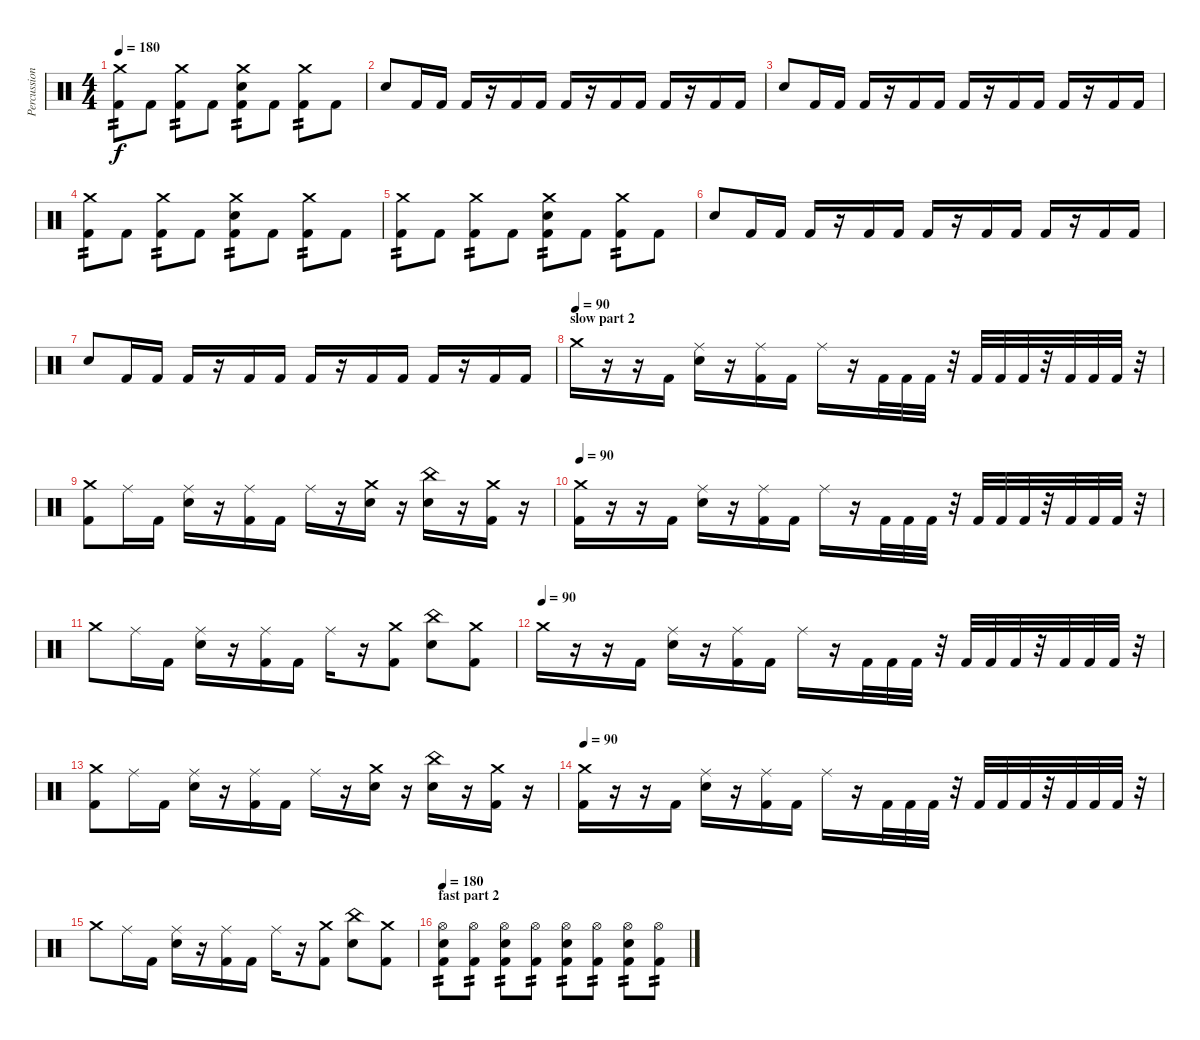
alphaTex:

\track ("Percussion" "Percussion") {instrument percussion}
\staff {score}
\articulation defaults
\ts (4 4)
\tempo 180
\clef neutral
\ks c
("Crash medium (hit)" "Kick (hit) 2").8{tp 2 dy f} "Kick (hit) 2".8 ("Crash medium (hit)" "Kick (hit) 2").8{tp 2} "Kick (hit) 2".8 ("Crash medium (hit)" "Electric Snare (hit)" "Kick (hit) 2").8{tp 2} "Kick (hit) 2".8 ("Crash medium (hit)" "Kick (hit) 2").8{tp 2} "Kick (hit) 2".8 |
"Electric Snare (hit)".8 "Kick (hit) 2".16 "Kick (hit) 2".16 "Kick (hit) 2".16 r.16 "Kick (hit) 2".16 "Kick (hit) 2".16 "Kick (hit) 2".16 r.16 "Kick (hit) 2".16 "Kick (hit) 2".16 "Kick (hit) 2".16 r.16 "Kick (hit) 2".16 "Kick (hit) 2".16 |
"Electric Snare (hit)".8 "Kick (hit) 2".16 "Kick (hit) 2".16 "Kick (hit) 2".16 r.16 "Kick (hit) 2".16 "Kick (hit) 2".16 "Kick (hit) 2".16 r.16 "Kick (hit) 2".16 "Kick (hit) 2".16 "Kick (hit) 2".16 r.16 "Kick (hit) 2".16 "Kick (hit) 2".16 |
("Crash medium (hit)" "Kick (hit) 2").8{tp 2} "Kick (hit) 2".8 ("Crash medium (hit)" "Kick (hit) 2").8{tp 2} "Kick (hit) 2".8 ("Crash medium (hit)" "Electric Snare (hit)" "Kick (hit) 2").8{tp 2} "Kick (hit) 2".8 ("Crash medium (hit)" "Kick (hit) 2").8{tp 2} "Kick (hit) 2".8 |
("Crash medium (hit)" "Kick (hit) 2").8{tp 2} "Kick (hit) 2".8 ("Crash medium (hit)" "Kick (hit) 2").8{tp 2} "Kick (hit) 2".8 ("Crash medium (hit)" "Electric Snare (hit)" "Kick (hit) 2").8{tp 2} "Kick (hit) 2".8 ("Crash medium (hit)" "Kick (hit) 2").8{tp 2} "Kick (hit) 2".8 |
"Electric Snare (hit)".8 "Kick (hit) 2".16 "Kick (hit) 2".16 "Kick (hit) 2".16 r.16 "Kick (hit) 2".16 "Kick (hit) 2".16 "Kick (hit) 2".16 r.16 "Kick (hit) 2".16 "Kick (hit) 2".16 "Kick (hit) 2".16 r.16 "Kick (hit) 2".16 "Kick (hit) 2".16 |
"Electric Snare (hit)".8 "Kick (hit) 2".16 "Kick (hit) 2".16 "Kick (hit) 2".16 r.16 "Kick (hit) 2".16 "Kick (hit) 2".16 "Kick (hit) 2".16 r.16 "Kick (hit) 2".16 "Kick (hit) 2".16 "Kick (hit) 2".16 r.16 "Kick (hit) 2".16 "Kick (hit) 2".16 |
\section ("" "slow part 2")
\tempo (90)
"Crash medium (hit)".16 r.16 r.16 "Kick (hit) 2".16 ("Ride (middle)" "Electric Snare (hit)").16 r.16 ("Ride (middle)" "Kick (hit) 2").16 "Kick (hit) 2".16 "Ride (middle)".16 r.16 "Kick (hit) 2".32 "Kick (hit) 2".32 "Kick (hit) 2".32 r.32 "Kick (hit) 2".32 "Kick (hit) 2".32 "Kick (hit) 2".32 r.32 "Kick (hit) 2".32 "Kick (hit) 2".32 "Kick (hit) 2".32 r.32 |
("Crash medium (hit)" "Kick (hit) 2").8 "Ride (middle)".16 "Kick (hit) 2".16 ("Ride (middle)" "Electric Snare (hit)").16 r.16 ("Ride (middle)" "Kick (hit) 2").16 "Kick (hit) 2".16 "Ride (middle)".16 r.16 ("Crash medium (hit)" "Electric Snare (hit)").16 r.16 ("China (hit)" "Electric Snare (hit)").16 r.16 ("Crash medium (hit)" "Kick (hit) 2").16 r.16 |
\tempo 90
("Crash medium (hit)" "Kick (hit) 2").16 r.16 r.16 "Kick (hit) 2".16 ("Ride (middle)" "Electric Snare (hit)").16 r.16 ("Ride (middle)" "Kick (hit) 2").16 "Kick (hit) 2".16 "Ride (middle)".16 r.16 "Kick (hit) 2".32 "Kick (hit) 2".32 "Kick (hit) 2".32 r.32 "Kick (hit) 2".32 "Kick (hit) 2".32 "Kick (hit) 2".32 r.32 "Kick (hit) 2".32 "Kick (hit) 2".32 "Kick (hit) 2".32 r.32 |
"Crash medium (hit)".8 "Ride (middle)".16 "Kick (hit) 2".16 ("Ride (middle)" "Electric Snare (hit)").16 r.16 ("Ride (middle)" "Kick (hit) 2").16 "Kick (hit) 2".16 "Ride (middle)".16 r.16 ("Crash medium (hit)" "Kick (hit) 2").8 ("China (hit)" "Electric Snare (hit)").8 ("Crash medium (hit)" "Kick (hit) 2").8 |
\tempo (90)
"Crash medium (hit)".16 r.16 r.16 "Kick (hit) 2".16 ("Ride (middle)" "Electric Snare (hit)").16 r.16 ("Ride (middle)" "Kick (hit) 2").16 "Kick (hit) 2".16 "Ride (middle)".16 r.16 "Kick (hit) 2".32 "Kick (hit) 2".32 "Kick (hit) 2".32 r.32 "Kick (hit) 2".32 "Kick (hit) 2".32 "Kick (hit) 2".32 r.32 "Kick (hit) 2".32 "Kick (hit) 2".32 "Kick (hit) 2".32 r.32 |
("Crash medium (hit)" "Kick (hit) 2").8 "Ride (middle)".16 "Kick (hit) 2".16 ("Ride (middle)" "Electric Snare (hit)").16 r.16 ("Ride (middle)" "Kick (hit) 2").16 "Kick (hit) 2".16 "Ride (middle)".16 r.16 ("Crash medium (hit)" "Electric Snare (hit)").16 r.16 ("China (hit)" "Electric Snare (hit)").16 r.16 ("Crash medium (hit)" "Kick (hit) 2").16 r.16 |
\tempo 90
("Crash medium (hit)" "Kick (hit) 2").16 r.16 r.16 "Kick (hit) 2".16 ("Ride (middle)" "Electric Snare (hit)").16 r.16 ("Ride (middle)" "Kick (hit) 2").16 "Kick (hit) 2".16 "Ride (middle)".16 r.16 "Kick (hit) 2".32 "Kick (hit) 2".32 "Kick (hit) 2".32 r.32 "Kick (hit) 2".32 "Kick (hit) 2".32 "Kick (hit) 2".32 r.32 "Kick (hit) 2".32 "Kick (hit) 2".32 "Kick (hit) 2".32 r.32 |
"Crash medium (hit)".8 "Ride (middle)".16 "Kick (hit) 2".16 ("Ride (middle)" "Electric Snare (hit)").16 r.16 ("Ride (middle)" "Kick (hit) 2").16 "Kick (hit) 2".16 "Ride (middle)".16 r.16 ("Crash medium (hit)" "Kick (hit) 2").8 ("China (hit)" "Electric Snare (hit)").8 ("Crash medium (hit)" "Kick (hit) 2").8 |
\section ("" "fast part 2")
\tempo 180
("Hi-Hat (open)" "Electric Snare (hit)" "Kick (hit) 2").8{tp 2} ("Hi-Hat (open)" "Kick (hit) 2").8{tp 2} ("Hi-Hat (open)" "Electric Snare (hit)" "Kick (hit) 2").8{tp 2} ("Hi-Hat (open)" "Kick (hit) 2").8{tp 2} ("Hi-Hat (open)" "Electric Snare (hit)" "Kick (hit) 2").8{tp 2} ("Hi-Hat (open)" "Kick (hit) 2").8{tp 2} ("Hi-Hat (open)" "Electric Snare (hit)" "Kick (hit) 2").8{tp 2} ("Hi-Hat (open)" "Kick (hit) 2").8{tp 2}
